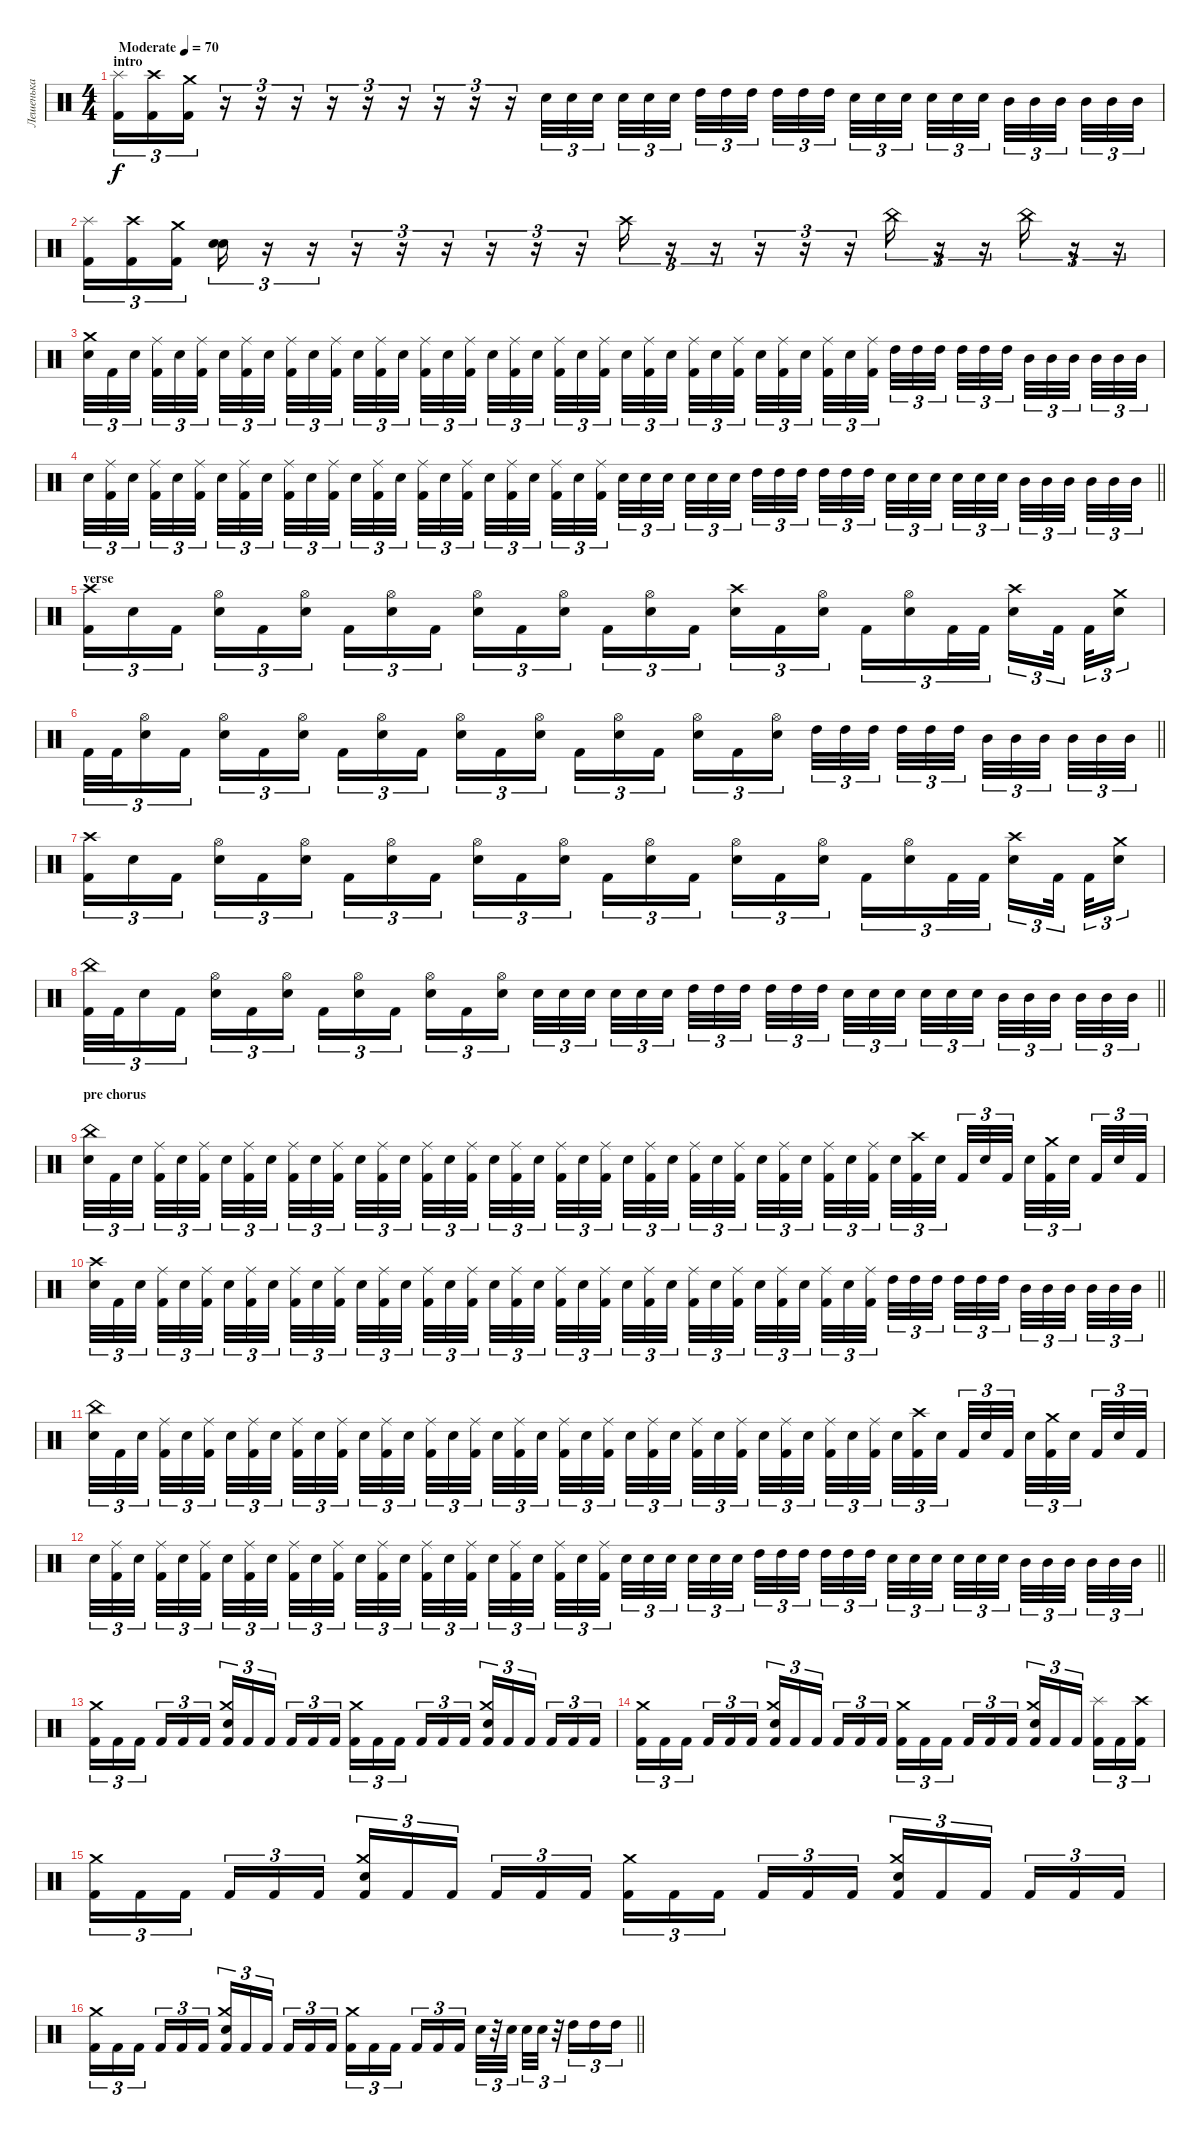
\track ("Лешенька" "Лешенька") {instrument percussion}
\staff {score}
\articulation defaults
\ts (4 4)
\section ("" "intro")
\tempo (70 "Moderate")
\clef neutral
\ks c
("Splash (hit)" "Kick (hit) 2").16{tu (3 2) dy f} ("Crash high (hit)" "Kick (hit) 2").16{tu (3 2)} ("Crash medium (hit)" "Kick (hit) 2").16{tu (3 2)} r.16{tu (3 2)} r.16{tu (3 2)} r.16{tu (3 2)} r.16{tu (3 2)} r.16{tu (3 2)} r.16{tu (3 2)} r.16{tu (3 2)} r.16{tu (3 2)} r.16{tu (3 2)} "Electric Snare (hit)".32{tu (3 2)} "Electric Snare (hit)".32{tu (3 2)} "Electric Snare (hit)".32{tu (3 2) beam splitsecondary} "Electric Snare (hit)".32{tu (3 2)} "Electric Snare (hit)".32{tu (3 2)} "Electric Snare (hit)".32{tu (3 2) beam splitsecondary} "High Tom (hit)".32{tu (3 2)} "High Tom (hit)".32{tu (3 2)} "High Tom (hit)".32{tu (3 2) beam splitsecondary} "High Tom (hit)".32{tu (3 2)} "High Tom (hit)".32{tu (3 2)} "High Tom (hit)".32{tu (3 2)} "Electric Snare (hit)".32{tu (3 2)} "Electric Snare (hit)".32{tu (3 2)} "Electric Snare (hit)".32{tu (3 2) beam splitsecondary} "Electric Snare (hit)".32{tu (3 2)} "Electric Snare (hit)".32{tu (3 2)} "Electric Snare (hit)".32{tu (3 2) beam splitsecondary} "Mid Tom (hit)".32{tu (3 2)} "Mid Tom (hit)".32{tu (3 2)} "Mid Tom (hit)".32{tu (3 2) beam splitsecondary} "Mid Tom (hit)".32{tu (3 2)} "Mid Tom (hit)".32{tu (3 2)} "Mid Tom (hit)".32{tu (3 2)} |
("Splash (hit)" "Kick (hit) 2").16{tu (3 2)} ("Crash high (hit)" "Kick (hit) 2").16{tu (3 2)} ("Crash medium (hit)" "Kick (hit) 2").16{tu (3 2) beam splitsecondary} ("Electric Snare (hit)" "Electric Snare (hit)").16{tu (3 2)} r.16{tu (3 2)} r.16{tu (3 2)} r.16{tu (3 2)} r.16{tu (3 2)} r.16{tu (3 2)} r.16{tu (3 2)} r.16{tu (3 2)} r.16{tu (3 2)} "Crash high (hit)".16{tu (3 2)} r.16{tu (3 2)} r.16{tu (3 2)} r.16{tu (3 2)} r.16{tu (3 2)} r.16{tu (3 2)} "China (hit)".16{tu (3 2)} r.16{tu (3 2)} r.16{tu (3 2)} "China (hit)".16{tu (3 2)} r.16{tu (3 2)} r.16{tu (3 2)} |
("Crash medium (hit)" "Electric Snare (hit)").32{tu (3 2)} "Kick (hit) 2".32{tu (3 2)} "Electric Snare (hit)".32{tu (3 2) beam splitsecondary} ("Ride (middle)" "Kick (hit) 2").32{tu (3 2)} "Electric Snare (hit)".32{tu (3 2)} ("Ride (middle)" "Kick (hit) 2").32{tu (3 2) beam splitsecondary} "Electric Snare (hit)".32{tu (3 2)} ("Ride (middle)" "Kick (hit) 2").32{tu (3 2)} "Electric Snare (hit)".32{tu (3 2) beam splitsecondary} ("Ride (middle)" "Kick (hit) 2").32{tu (3 2)} "Electric Snare (hit)".32{tu (3 2)} ("Ride (middle)" "Kick (hit) 2").32{tu (3 2)} "Electric Snare (hit)".32{tu (3 2)} ("Ride (middle)" "Kick (hit) 2").32{tu (3 2)} "Electric Snare (hit)".32{tu (3 2) beam splitsecondary} ("Ride (middle)" "Kick (hit) 2").32{tu (3 2)} "Electric Snare (hit)".32{tu (3 2)} ("Ride (middle)" "Kick (hit) 2").32{tu (3 2) beam splitsecondary} "Electric Snare (hit)".32{tu (3 2)} ("Ride (middle)" "Kick (hit) 2").32{tu (3 2)} "Electric Snare (hit)".32{tu (3 2) beam splitsecondary} ("Ride (middle)" "Kick (hit) 2").32{tu (3 2)} "Electric Snare (hit)".32{tu (3 2)} ("Ride (middle)" "Kick (hit) 2").32{tu (3 2)} "Electric Snare (hit)".32{tu (3 2)} ("Ride (middle)" "Kick (hit) 2").32{tu (3 2)} "Electric Snare (hit)".32{tu (3 2) beam splitsecondary} ("Ride (middle)" "Kick (hit) 2").32{tu (3 2)} "Electric Snare (hit)".32{tu (3 2)} ("Ride (middle)" "Kick (hit) 2").32{tu (3 2) beam splitsecondary} "Electric Snare (hit)".32{tu (3 2)} ("Ride (middle)" "Kick (hit) 2").32{tu (3 2)} "Electric Snare (hit)".32{tu (3 2) beam splitsecondary} ("Ride (middle)" "Kick (hit) 2").32{tu (3 2)} "Electric Snare (hit)".32{tu (3 2)} ("Ride (middle)" "Kick (hit) 2").32{tu (3 2)} "High Tom (hit)".32{tu (3 2)} "High Tom (hit)".32{tu (3 2)} "High Tom (hit)".32{tu (3 2) beam splitsecondary} "High Tom (hit)".32{tu (3 2)} "High Tom (hit)".32{tu (3 2)} "High Tom (hit)".32{tu (3 2) beam splitsecondary} "Mid Tom (hit)".32{tu (3 2)} "Mid Tom (hit)".32{tu (3 2)} "Mid Tom (hit)".32{tu (3 2) beam splitsecondary} "Mid Tom (hit)".32{tu (3 2)} "Mid Tom (hit)".32{tu (3 2)} "Mid Tom (hit)".32{tu (3 2)} |
\barLineRight lightlight "Electric Snare (hit)".32{tu (3 2)}
("Ride (middle)" "Kick (hit) 2").32{tu (3 2)} "Electric Snare (hit)".32{tu (3 2) beam splitsecondary} ("Ride (middle)" "Kick (hit) 2").32{tu (3 2)} "Electric Snare (hit)".32{tu (3 2)} ("Ride (middle)" "Kick (hit) 2").32{tu (3 2) beam splitsecondary} "Electric Snare (hit)".32{tu (3 2)} ("Ride (middle)" "Kick (hit) 2").32{tu (3 2)} "Electric Snare (hit)".32{tu (3 2) beam splitsecondary} ("Ride (middle)" "Kick (hit) 2").32{tu (3 2)} "Electric Snare (hit)".32{tu (3 2)} ("Ride (middle)" "Kick (hit) 2").32{tu (3 2)} "Electric Snare (hit)".32{tu (3 2)} ("Ride (middle)" "Kick (hit) 2").32{tu (3 2)} "Electric Snare (hit)".32{tu (3 2) beam splitsecondary} ("Ride (middle)" "Kick (hit) 2").32{tu (3 2)} "Electric Snare (hit)".32{tu (3 2)} ("Ride (middle)" "Kick (hit) 2").32{tu (3 2) beam splitsecondary} "Electric Snare (hit)".32{tu (3 2)} ("Ride (middle)" "Kick (hit) 2").32{tu (3 2)} "Electric Snare (hit)".32{tu (3 2) beam splitsecondary} ("Ride (middle)" "Kick (hit) 2").32{tu (3 2)} "Electric Snare (hit)".32{tu (3 2)} ("Ride (middle)" "Kick (hit) 2").32{tu (3 2)} "Electric Snare (hit)".32{tu (3 2)} "Electric Snare (hit)".32{tu (3 2)} "Electric Snare (hit)".32{tu (3 2) beam splitsecondary} "Electric Snare (hit)".32{tu (3 2)} "Electric Snare (hit)".32{tu (3 2)} "Electric Snare (hit)".32{tu (3 2) beam splitsecondary} "High Tom (hit)".32{tu (3 2)} "High Tom (hit)".32{tu (3 2)} "High Tom (hit)".32{tu (3 2) beam splitsecondary} "High Tom (hit)".32{tu (3 2)} "High Tom (hit)".32{tu (3 2)} "High Tom (hit)".32{tu (3 2)} "Electric Snare (hit)".32{tu (3 2)} "Electric Snare (hit)".32{tu (3 2)} "Electric Snare (hit)".32{tu (3 2) beam splitsecondary} "Electric Snare (hit)".32{tu (3 2)} "Electric Snare (hit)".32{tu (3 2)} "Electric Snare (hit)".32{tu (3 2) beam splitsecondary} "Mid Tom (hit)".32{tu (3 2)} "Mid Tom (hit)".32{tu (3 2)} "Mid Tom (hit)".32{tu (3 2) beam splitsecondary} "Mid Tom (hit)".32{tu (3 2)} "Mid Tom (hit)".32{tu (3 2)} "Mid Tom (hit)".32{tu (3 2)} |
\section ("" "verse")
("Crash high (hit)" "Kick (hit) 2").16{tu (3 2)} "Electric Snare (hit)".16{tu (3 2)} "Kick (hit) 2".16{tu (3 2) beam splitsecondary} ("Hi-Hat (open)" "Electric Snare (hit)").16{tu (3 2)} "Kick (hit) 2".16{tu (3 2)} ("Hi-Hat (open)" "Electric Snare (hit)").16{tu (3 2)} "Kick (hit) 2".16{tu (3 2)} ("Hi-Hat (open)" "Electric Snare (hit)").16{tu (3 2)} "Kick (hit) 2".16{tu (3 2) beam splitsecondary} ("Hi-Hat (open)" "Electric Snare (hit)").16{tu (3 2)} "Kick (hit) 2".16{tu (3 2)} ("Hi-Hat (open)" "Electric Snare (hit)").16{tu (3 2)} "Kick (hit) 2".16{tu (3 2)} ("Hi-Hat (open)" "Electric Snare (hit)").16{tu (3 2)} "Kick (hit) 2".16{tu (3 2) beam splitsecondary} ("Crash high (hit)" "Electric Snare (hit)").16{tu (3 2)} "Kick (hit) 2".16{tu (3 2)} ("Hi-Hat (open)" "Electric Snare (hit)").16{tu (3 2)} "Kick (hit) 2".16{tu (3 2)} ("Hi-Hat (open)" "Electric Snare (hit)").16{tu (3 2)} "Kick (hit) 2".32{tu (3 2)} "Kick (hit) 2".32{tu (3 2) beam splitsecondary} ("Crash high (hit)" "Electric Snare (hit)").16{tu (3 2)} "Kick (hit) 2".32{tu (3 2) beam splitsecondary} "Kick (hit) 2".32{tu (3 2)} ("Crash medium (hit)" "Electric Snare (hit)").16{tu (3 2)} |
\barLineRight lightlight "Kick (hit) 2".32{tu (3 2)} "Kick (hit) 2".32{tu (3 2)}
("Hi-Hat (open)" "Electric Snare (hit)").16{tu (3 2)} "Kick (hit) 2".16{tu (3 2) beam splitsecondary} ("Hi-Hat (open)" "Electric Snare (hit)").16{tu (3 2)} "Kick (hit) 2".16{tu (3 2)} ("Hi-Hat (open)" "Electric Snare (hit)").16{tu (3 2)} "Kick (hit) 2".16{tu (3 2)} ("Hi-Hat (open)" "Electric Snare (hit)").16{tu (3 2)} "Kick (hit) 2".16{tu (3 2) beam splitsecondary} ("Hi-Hat (open)" "Electric Snare (hit)").16{tu (3 2)} "Kick (hit) 2".16{tu (3 2)} ("Hi-Hat (open)" "Electric Snare (hit)").16{tu (3 2)} "Kick (hit) 2".16{tu (3 2)} ("Hi-Hat (open)" "Electric Snare (hit)").16{tu (3 2)} "Kick (hit) 2".16{tu (3 2) beam splitsecondary} ("Hi-Hat (open)" "Electric Snare (hit)").16{tu (3 2)} "Kick (hit) 2".16{tu (3 2)} ("Hi-Hat (open)" "Electric Snare (hit)").16{tu (3 2)} "High Tom (hit)".32{tu (3 2)} "High Tom (hit)".32{tu (3 2)} "High Tom (hit)".32{tu (3 2) beam splitsecondary} "High Tom (hit)".32{tu (3 2)} "High Tom (hit)".32{tu (3 2)} "High Tom (hit)".32{tu (3 2) beam splitsecondary} "Mid Tom (hit)".32{tu (3 2)} "Mid Tom (hit)".32{tu (3 2)} "Mid Tom (hit)".32{tu (3 2) beam splitsecondary} "Mid Tom (hit)".32{tu (3 2)} "Mid Tom (hit)".32{tu (3 2)} "Mid Tom (hit)".32{tu (3 2)} |
("Crash high (hit)" "Kick (hit) 2").16{tu (3 2)} "Electric Snare (hit)".16{tu (3 2)} "Kick (hit) 2".16{tu (3 2) beam splitsecondary} ("Hi-Hat (open)" "Electric Snare (hit)").16{tu (3 2)} "Kick (hit) 2".16{tu (3 2)} ("Hi-Hat (open)" "Electric Snare (hit)").16{tu (3 2)} "Kick (hit) 2".16{tu (3 2)} ("Hi-Hat (open)" "Electric Snare (hit)").16{tu (3 2)} "Kick (hit) 2".16{tu (3 2) beam splitsecondary} ("Hi-Hat (open)" "Electric Snare (hit)").16{tu (3 2)} "Kick (hit) 2".16{tu (3 2)} ("Hi-Hat (open)" "Electric Snare (hit)").16{tu (3 2)} "Kick (hit) 2".16{tu (3 2)} ("Hi-Hat (open)" "Electric Snare (hit)").16{tu (3 2)} "Kick (hit) 2".16{tu (3 2) beam splitsecondary} ("Hi-Hat (open)" "Electric Snare (hit)").16{tu (3 2)} "Kick (hit) 2".16{tu (3 2)} ("Hi-Hat (open)" "Electric Snare (hit)").16{tu (3 2)} "Kick (hit) 2".16{tu (3 2)} ("Hi-Hat (open)" "Electric Snare (hit)").16{tu (3 2)} "Kick (hit) 2".32{tu (3 2)} "Kick (hit) 2".32{tu (3 2) beam splitsecondary} ("Crash high (hit)" "Electric Snare (hit)").16{tu (3 2)} "Kick (hit) 2".32{tu (3 2) beam splitsecondary} "Kick (hit) 2".32{tu (3 2)} ("Crash medium (hit)" "Electric Snare (hit)").16{tu (3 2)} |
\barLineRight lightlight
("China (hit)" "Kick (hit) 2").32{tu (3 2)} "Kick (hit) 2".32{tu (3 2)} "Electric Snare (hit)".16{tu (3 2)} "Kick (hit) 2".16{tu (3 2) beam splitsecondary} ("Hi-Hat (open)" "Electric Snare (hit)").16{tu (3 2)} "Kick (hit) 2".16{tu (3 2)} ("Hi-Hat (open)" "Electric Snare (hit)").16{tu (3 2)} "Kick (hit) 2".16{tu (3 2)} ("Hi-Hat (open)" "Electric Snare (hit)").16{tu (3 2)} "Kick (hit) 2".16{tu (3 2) beam splitsecondary} ("Hi-Hat (open)" "Electric Snare (hit)").16{tu (3 2)} "Kick (hit) 2".16{tu (3 2)} ("Hi-Hat (open)" "Electric Snare (hit)").16{tu (3 2)} "Electric Snare (hit)".32{tu (3 2)} "Electric Snare (hit)".32{tu (3 2)} "Electric Snare (hit)".32{tu (3 2) beam splitsecondary} "Electric Snare (hit)".32{tu (3 2)} "Electric Snare (hit)".32{tu (3 2)} "Electric Snare (hit)".32{tu (3 2) beam splitsecondary} "High Tom (hit)".32{tu (3 2)} "High Tom (hit)".32{tu (3 2)} "High Tom (hit)".32{tu (3 2) beam splitsecondary} "High Tom (hit)".32{tu (3 2)} "High Tom (hit)".32{tu (3 2)} "High Tom (hit)".32{tu (3 2)} "Electric Snare (hit)".32{tu (3 2)} "Electric Snare (hit)".32{tu (3 2)} "Electric Snare (hit)".32{tu (3 2) beam splitsecondary} "Electric Snare (hit)".32{tu (3 2)} "Electric Snare (hit)".32{tu (3 2)} "Electric Snare (hit)".32{tu (3 2) beam splitsecondary} "Mid Tom (hit)".32{tu (3 2)} "Mid Tom (hit)".32{tu (3 2)} "Mid Tom (hit)".32{tu (3 2) beam splitsecondary} "Mid Tom (hit)".32{tu (3 2)} "Mid Tom (hit)".32{tu (3 2)} "Mid Tom (hit)".32{tu (3 2)} |
\section ("" "pre chorus")
("China (hit)" "Electric Snare (hit)").32{tu (3 2)} "Kick (hit) 2".32{tu (3 2)} "Electric Snare (hit)".32{tu (3 2) beam splitsecondary} ("Ride (middle)" "Kick (hit) 2").32{tu (3 2)} "Electric Snare (hit)".32{tu (3 2)} ("Ride (middle)" "Kick (hit) 2").32{tu (3 2) beam splitsecondary} "Electric Snare (hit)".32{tu (3 2)} ("Ride (middle)" "Kick (hit) 2").32{tu (3 2)} "Electric Snare (hit)".32{tu (3 2) beam splitsecondary} ("Ride (middle)" "Kick (hit) 2").32{tu (3 2)} "Electric Snare (hit)".32{tu (3 2)} ("Ride (middle)" "Kick (hit) 2").32{tu (3 2)} "Electric Snare (hit)".32{tu (3 2)} ("Ride (middle)" "Kick (hit) 2").32{tu (3 2)} "Electric Snare (hit)".32{tu (3 2) beam splitsecondary} ("Ride (middle)" "Kick (hit) 2").32{tu (3 2)} "Electric Snare (hit)".32{tu (3 2)} ("Ride (middle)" "Kick (hit) 2").32{tu (3 2) beam splitsecondary} "Electric Snare (hit)".32{tu (3 2)} ("Ride (middle)" "Kick (hit) 2").32{tu (3 2)} "Electric Snare (hit)".32{tu (3 2) beam splitsecondary} ("Ride (middle)" "Kick (hit) 2").32{tu (3 2)} "Electric Snare (hit)".32{tu (3 2)} ("Ride (middle)" "Kick (hit) 2").32{tu (3 2)} "Electric Snare (hit)".32{tu (3 2)} ("Ride (middle)" "Kick (hit) 2").32{tu (3 2)} "Electric Snare (hit)".32{tu (3 2) beam splitsecondary} ("Ride (middle)" "Kick (hit) 2").32{tu (3 2)} "Electric Snare (hit)".32{tu (3 2)} ("Ride (middle)" "Kick (hit) 2").32{tu (3 2) beam splitsecondary} "Electric Snare (hit)".32{tu (3 2)} ("Ride (middle)" "Kick (hit) 2").32{tu (3 2)} "Electric Snare (hit)".32{tu (3 2) beam splitsecondary} ("Ride (middle)" "Kick (hit) 2").32{tu (3 2)} "Electric Snare (hit)".32{tu (3 2)} ("Ride (middle)" "Kick (hit) 2").32{tu (3 2)} "Electric Snare (hit)".32{tu (3 2)} ("Crash high (hit)" "Kick (hit) 2").32{tu (3 2)} "Electric Snare (hit)".32{tu (3 2) beam splitsecondary} "Kick (hit) 2".32{tu (3 2)} "Electric Snare (hit)".32{tu (3 2)} "Kick (hit) 2".32{tu (3 2) beam splitsecondary} "Electric Snare (hit)".32{tu (3 2)} ("Crash medium (hit)" "Kick (hit) 2").32{tu (3 2)} "Electric Snare (hit)".32{tu (3 2) beam splitsecondary} "Kick (hit) 2".32{tu (3 2)} "Electric Snare (hit)".32{tu (3 2)} "Kick (hit) 2".32{tu (3 2)} |
\barLineRight lightlight
("Crash high (hit)" "Electric Snare (hit)").32{tu (3 2)} "Kick (hit) 2".32{tu (3 2)} "Electric Snare (hit)".32{tu (3 2) beam splitsecondary} ("Ride (middle)" "Kick (hit) 2").32{tu (3 2)} "Electric Snare (hit)".32{tu (3 2)} ("Ride (middle)" "Kick (hit) 2").32{tu (3 2) beam splitsecondary} "Electric Snare (hit)".32{tu (3 2)} ("Ride (middle)" "Kick (hit) 2").32{tu (3 2)} "Electric Snare (hit)".32{tu (3 2) beam splitsecondary} ("Ride (middle)" "Kick (hit) 2").32{tu (3 2)} "Electric Snare (hit)".32{tu (3 2)} ("Ride (middle)" "Kick (hit) 2").32{tu (3 2)} "Electric Snare (hit)".32{tu (3 2)} ("Ride (middle)" "Kick (hit) 2").32{tu (3 2)} "Electric Snare (hit)".32{tu (3 2) beam splitsecondary} ("Ride (middle)" "Kick (hit) 2").32{tu (3 2)} "Electric Snare (hit)".32{tu (3 2)} ("Ride (middle)" "Kick (hit) 2").32{tu (3 2) beam splitsecondary} "Electric Snare (hit)".32{tu (3 2)} ("Ride (middle)" "Kick (hit) 2").32{tu (3 2)} "Electric Snare (hit)".32{tu (3 2) beam splitsecondary} ("Ride (middle)" "Kick (hit) 2").32{tu (3 2)} "Electric Snare (hit)".32{tu (3 2)} ("Ride (middle)" "Kick (hit) 2").32{tu (3 2)} "Electric Snare (hit)".32{tu (3 2)} ("Ride (middle)" "Kick (hit) 2").32{tu (3 2)} "Electric Snare (hit)".32{tu (3 2) beam splitsecondary} ("Ride (middle)" "Kick (hit) 2").32{tu (3 2)} "Electric Snare (hit)".32{tu (3 2)} ("Ride (middle)" "Kick (hit) 2").32{tu (3 2) beam splitsecondary} "Electric Snare (hit)".32{tu (3 2)} ("Ride (middle)" "Kick (hit) 2").32{tu (3 2)} "Electric Snare (hit)".32{tu (3 2) beam splitsecondary} ("Ride (middle)" "Kick (hit) 2").32{tu (3 2)} "Electric Snare (hit)".32{tu (3 2)} ("Ride (middle)" "Kick (hit) 2").32{tu (3 2)} "High Tom (hit)".32{tu (3 2)} "High Tom (hit)".32{tu (3 2)} "High Tom (hit)".32{tu (3 2) beam splitsecondary} "High Tom (hit)".32{tu (3 2)} "High Tom (hit)".32{tu (3 2)} "High Tom (hit)".32{tu (3 2) beam splitsecondary} "Mid Tom (hit)".32{tu (3 2)} "Mid Tom (hit)".32{tu (3 2)} "Mid Tom (hit)".32{tu (3 2) beam splitsecondary} "Mid Tom (hit)".32{tu (3 2)} "Mid Tom (hit)".32{tu (3 2)} "Mid Tom (hit)".32{tu (3 2)} |
("China (hit)" "Electric Snare (hit)").32{tu (3 2)} "Kick (hit) 2".32{tu (3 2)} "Electric Snare (hit)".32{tu (3 2) beam splitsecondary} ("Ride (middle)" "Kick (hit) 2").32{tu (3 2)} "Electric Snare (hit)".32{tu (3 2)} ("Ride (middle)" "Kick (hit) 2").32{tu (3 2) beam splitsecondary} "Electric Snare (hit)".32{tu (3 2)} ("Ride (middle)" "Kick (hit) 2").32{tu (3 2)} "Electric Snare (hit)".32{tu (3 2) beam splitsecondary} ("Ride (middle)" "Kick (hit) 2").32{tu (3 2)} "Electric Snare (hit)".32{tu (3 2)} ("Ride (middle)" "Kick (hit) 2").32{tu (3 2)} "Electric Snare (hit)".32{tu (3 2)} ("Ride (middle)" "Kick (hit) 2").32{tu (3 2)} "Electric Snare (hit)".32{tu (3 2) beam splitsecondary} ("Ride (middle)" "Kick (hit) 2").32{tu (3 2)} "Electric Snare (hit)".32{tu (3 2)} ("Ride (middle)" "Kick (hit) 2").32{tu (3 2) beam splitsecondary} "Electric Snare (hit)".32{tu (3 2)} ("Ride (middle)" "Kick (hit) 2").32{tu (3 2)} "Electric Snare (hit)".32{tu (3 2) beam splitsecondary} ("Ride (middle)" "Kick (hit) 2").32{tu (3 2)} "Electric Snare (hit)".32{tu (3 2)} ("Ride (middle)" "Kick (hit) 2").32{tu (3 2)} "Electric Snare (hit)".32{tu (3 2)} ("Ride (middle)" "Kick (hit) 2").32{tu (3 2)} "Electric Snare (hit)".32{tu (3 2) beam splitsecondary} ("Ride (middle)" "Kick (hit) 2").32{tu (3 2)} "Electric Snare (hit)".32{tu (3 2)} ("Ride (middle)" "Kick (hit) 2").32{tu (3 2) beam splitsecondary} "Electric Snare (hit)".32{tu (3 2)} ("Ride (middle)" "Kick (hit) 2").32{tu (3 2)} "Electric Snare (hit)".32{tu (3 2) beam splitsecondary} ("Ride (middle)" "Kick (hit) 2").32{tu (3 2)} "Electric Snare (hit)".32{tu (3 2)} ("Ride (middle)" "Kick (hit) 2").32{tu (3 2)} "Electric Snare (hit)".32{tu (3 2)} ("Crash high (hit)" "Kick (hit) 2").32{tu (3 2)} "Electric Snare (hit)".32{tu (3 2) beam splitsecondary} "Kick (hit) 2".32{tu (3 2)} "Electric Snare (hit)".32{tu (3 2)} "Kick (hit) 2".32{tu (3 2) beam splitsecondary} "Electric Snare (hit)".32{tu (3 2)} ("Crash medium (hit)" "Kick (hit) 2").32{tu (3 2)} "Electric Snare (hit)".32{tu (3 2) beam splitsecondary} "Kick (hit) 2".32{tu (3 2)} "Electric Snare (hit)".32{tu (3 2)} "Kick (hit) 2".32{tu (3 2)} |
\barLineRight lightlight "Electric Snare (hit)".32{tu (3 2)}
("Ride (middle)" "Kick (hit) 2").32{tu (3 2)} "Electric Snare (hit)".32{tu (3 2) beam splitsecondary} ("Ride (middle)" "Kick (hit) 2").32{tu (3 2)} "Electric Snare (hit)".32{tu (3 2)} ("Ride (middle)" "Kick (hit) 2").32{tu (3 2) beam splitsecondary} "Electric Snare (hit)".32{tu (3 2)} ("Ride (middle)" "Kick (hit) 2").32{tu (3 2)} "Electric Snare (hit)".32{tu (3 2) beam splitsecondary} ("Ride (middle)" "Kick (hit) 2").32{tu (3 2)} "Electric Snare (hit)".32{tu (3 2)} ("Ride (middle)" "Kick (hit) 2").32{tu (3 2)} "Electric Snare (hit)".32{tu (3 2)} ("Ride (middle)" "Kick (hit) 2").32{tu (3 2)} "Electric Snare (hit)".32{tu (3 2) beam splitsecondary} ("Ride (middle)" "Kick (hit) 2").32{tu (3 2)} "Electric Snare (hit)".32{tu (3 2)} ("Ride (middle)" "Kick (hit) 2").32{tu (3 2) beam splitsecondary} "Electric Snare (hit)".32{tu (3 2)} ("Ride (middle)" "Kick (hit) 2").32{tu (3 2)} "Electric Snare (hit)".32{tu (3 2) beam splitsecondary} ("Ride (middle)" "Kick (hit) 2").32{tu (3 2)} "Electric Snare (hit)".32{tu (3 2)} ("Ride (middle)" "Kick (hit) 2").32{tu (3 2)} "Electric Snare (hit)".32{tu (3 2)} "Electric Snare (hit)".32{tu (3 2)} "Electric Snare (hit)".32{tu (3 2) beam splitsecondary} "Electric Snare (hit)".32{tu (3 2)} "Electric Snare (hit)".32{tu (3 2)} "Electric Snare (hit)".32{tu (3 2) beam splitsecondary} "High Tom (hit)".32{tu (3 2)} "High Tom (hit)".32{tu (3 2)} "High Tom (hit)".32{tu (3 2) beam splitsecondary} "High Tom (hit)".32{tu (3 2)} "High Tom (hit)".32{tu (3 2)} "High Tom (hit)".32{tu (3 2)} "Electric Snare (hit)".32{tu (3 2)} "Electric Snare (hit)".32{tu (3 2)} "Electric Snare (hit)".32{tu (3 2) beam splitsecondary} "Electric Snare (hit)".32{tu (3 2)} "Electric Snare (hit)".32{tu (3 2)} "Electric Snare (hit)".32{tu (3 2) beam splitsecondary} "Mid Tom (hit)".32{tu (3 2)} "Mid Tom (hit)".32{tu (3 2)} "Mid Tom (hit)".32{tu (3 2) beam splitsecondary} "Mid Tom (hit)".32{tu (3 2)} "Mid Tom (hit)".32{tu (3 2)} "Mid Tom (hit)".32{tu (3 2)} |
("Crash medium (hit)" "Kick (hit) 2").16{tu (3 2)} "Kick (hit) 2".16{tu (3 2)} "Kick (hit) 2".16{tu (3 2) beam splitsecondary} "Kick (hit) 2".16{tu (3 2)} "Kick (hit) 2".16{tu (3 2)} "Kick (hit) 2".16{tu (3 2)} ("Crash medium (hit)" "Electric Snare (hit)" "Kick (hit) 2").16{tu (3 2)} "Kick (hit) 2".16{tu (3 2)} "Kick (hit) 2".16{tu (3 2) beam splitsecondary} "Kick (hit) 2".16{tu (3 2)} "Kick (hit) 2".16{tu (3 2)} "Kick (hit) 2".16{tu (3 2)} ("Crash medium (hit)" "Kick (hit) 2").16{tu (3 2)} "Kick (hit) 2".16{tu (3 2)} "Kick (hit) 2".16{tu (3 2) beam splitsecondary} "Kick (hit) 2".16{tu (3 2)} "Kick (hit) 2".16{tu (3 2)} "Kick (hit) 2".16{tu (3 2)} ("Crash medium (hit)" "Electric Snare (hit)" "Kick (hit) 2").16{tu (3 2)} "Kick (hit) 2".16{tu (3 2)} "Kick (hit) 2".16{tu (3 2) beam splitsecondary} "Kick (hit) 2".16{tu (3 2)} "Kick (hit) 2".16{tu (3 2)} "Kick (hit) 2".16{tu (3 2)} |
("Crash medium (hit)" "Kick (hit) 2").16{tu (3 2)} "Kick (hit) 2".16{tu (3 2)} "Kick (hit) 2".16{tu (3 2) beam splitsecondary} "Kick (hit) 2".16{tu (3 2)} "Kick (hit) 2".16{tu (3 2)} "Kick (hit) 2".16{tu (3 2)} ("Crash medium (hit)" "Electric Snare (hit)" "Kick (hit) 2").16{tu (3 2)} "Kick (hit) 2".16{tu (3 2)} "Kick (hit) 2".16{tu (3 2) beam splitsecondary} "Kick (hit) 2".16{tu (3 2)} "Kick (hit) 2".16{tu (3 2)} "Kick (hit) 2".16{tu (3 2)} ("Crash medium (hit)" "Kick (hit) 2").16{tu (3 2)} "Kick (hit) 2".16{tu (3 2)} "Kick (hit) 2".16{tu (3 2) beam splitsecondary} "Kick (hit) 2".16{tu (3 2)} "Kick (hit) 2".16{tu (3 2)} "Kick (hit) 2".16{tu (3 2)} ("Crash medium (hit)" "Electric Snare (hit)" "Kick (hit) 2").16{tu (3 2)} "Kick (hit) 2".16{tu (3 2)} "Kick (hit) 2".16{tu (3 2) beam splitsecondary} ("Splash (hit)" "Kick (hit) 2").16{tu (3 2)} "Kick (hit) 2".16{tu (3 2)} ("Crash high (hit)" "Kick (hit) 2").16{tu (3 2)} |
("Crash medium (hit)" "Kick (hit) 2").16{tu (3 2)} "Kick (hit) 2".16{tu (3 2)} "Kick (hit) 2".16{tu (3 2) beam splitsecondary} "Kick (hit) 2".16{tu (3 2)} "Kick (hit) 2".16{tu (3 2)} "Kick (hit) 2".16{tu (3 2)} ("Crash medium (hit)" "Electric Snare (hit)" "Kick (hit) 2").16{tu (3 2)} "Kick (hit) 2".16{tu (3 2)} "Kick (hit) 2".16{tu (3 2) beam splitsecondary} "Kick (hit) 2".16{tu (3 2)} "Kick (hit) 2".16{tu (3 2)} "Kick (hit) 2".16{tu (3 2)} ("Crash medium (hit)" "Kick (hit) 2").16{tu (3 2)} "Kick (hit) 2".16{tu (3 2)} "Kick (hit) 2".16{tu (3 2) beam splitsecondary} "Kick (hit) 2".16{tu (3 2)} "Kick (hit) 2".16{tu (3 2)} "Kick (hit) 2".16{tu (3 2)} ("Crash medium (hit)" "Electric Snare (hit)" "Kick (hit) 2").16{tu (3 2)} "Kick (hit) 2".16{tu (3 2)} "Kick (hit) 2".16{tu (3 2) beam splitsecondary} "Kick (hit) 2".16{tu (3 2)} "Kick (hit) 2".16{tu (3 2)} "Kick (hit) 2".16{tu (3 2)} |
\barLineRight lightlight
("Crash medium (hit)" "Kick (hit) 2").16{tu (3 2)} "Kick (hit) 2".16{tu (3 2)} "Kick (hit) 2".16{tu (3 2) beam splitsecondary} "Kick (hit) 2".16{tu (3 2)} "Kick (hit) 2".16{tu (3 2)} "Kick (hit) 2".16{tu (3 2)} ("Crash medium (hit)" "Electric Snare (hit)" "Kick (hit) 2").16{tu (3 2)} "Kick (hit) 2".16{tu (3 2)} "Kick (hit) 2".16{tu (3 2) beam splitsecondary} "Kick (hit) 2".16{tu (3 2)} "Kick (hit) 2".16{tu (3 2)} "Kick (hit) 2".16{tu (3 2)} ("Crash medium (hit)" "Kick (hit) 2").16{tu (3 2)} "Kick (hit) 2".16{tu (3 2)} "Kick (hit) 2".16{tu (3 2) beam splitsecondary} "Kick (hit) 2".16{tu (3 2)} "Kick (hit) 2".16{tu (3 2)} "Kick (hit) 2".16{tu (3 2)} "Electric Snare (hit)".32{tu (3 2)} r.32{tu (3 2)} "Electric Snare (hit)".32{tu (3 2) beam splitsecondary} "Electric Snare (hit)".32{tu (3 2)} "Electric Snare (hit)".32{tu (3 2)} r.32{tu (3 2)} "High Tom (hit)".16{tu (3 2)} "High Tom (hit)".16{tu (3 2)} "High Tom (hit)".16{tu (3 2)}
